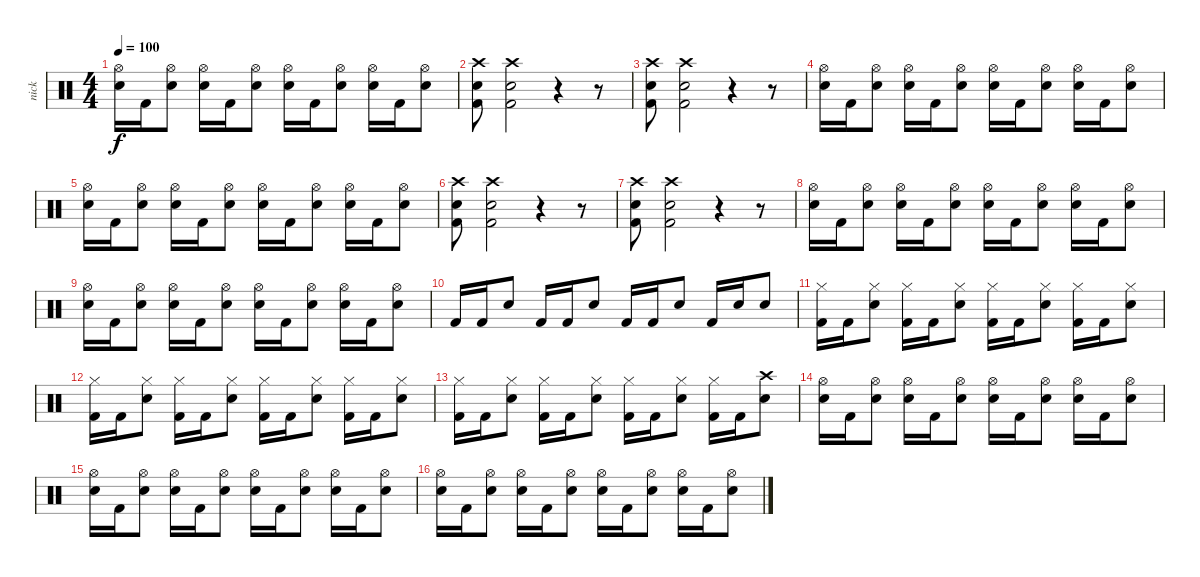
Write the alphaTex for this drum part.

\track ("nick" "nick") {instrument percussion}
\staff {score}
\articulation defaults
\ts (4 4)
\tempo 100
\clef neutral
\ks c
("Snare (hit) 2" "Hi-Hat (open)").16{dy f} "Kick (hit) 2".16 ("Snare (hit) 2" "Hi-Hat (open)").8 ("Snare (hit) 2" "Hi-Hat (open)").16 "Kick (hit) 2".16 ("Snare (hit) 2" "Hi-Hat (open)").8 ("Snare (hit) 2" "Hi-Hat (open)").16 "Kick (hit) 2".16 ("Snare (hit) 2" "Hi-Hat (open)").8 ("Snare (hit) 2" "Hi-Hat (open)").16 "Kick (hit) 2".16 ("Snare (hit) 2" "Hi-Hat (open)").8 |
("Snare (hit) 2" "Kick (hit) 2" "Crash high (hit)").8 ("Snare (hit) 2" "Kick (hit) 2" "Crash high (hit)").2 r.4 r.8 |
("Snare (hit) 2" "Kick (hit) 2" "Crash high (hit)").8 ("Snare (hit) 2" "Kick (hit) 2" "Crash high (hit)").2 r.4 r.8 |
("Snare (hit) 2" "Hi-Hat (open)").16 "Kick (hit) 2".16 ("Snare (hit) 2" "Hi-Hat (open)").8 ("Snare (hit) 2" "Hi-Hat (open)").16 "Kick (hit) 2".16 ("Snare (hit) 2" "Hi-Hat (open)").8 ("Snare (hit) 2" "Hi-Hat (open)").16 "Kick (hit) 2".16 ("Snare (hit) 2" "Hi-Hat (open)").8 ("Snare (hit) 2" "Hi-Hat (open)").16 "Kick (hit) 2".16 ("Snare (hit) 2" "Hi-Hat (open)").8 |
("Snare (hit) 2" "Hi-Hat (open)").16 "Kick (hit) 2".16 ("Snare (hit) 2" "Hi-Hat (open)").8 ("Snare (hit) 2" "Hi-Hat (open)").16 "Kick (hit) 2".16 ("Snare (hit) 2" "Hi-Hat (open)").8 ("Snare (hit) 2" "Hi-Hat (open)").16 "Kick (hit) 2".16 ("Snare (hit) 2" "Hi-Hat (open)").8 ("Snare (hit) 2" "Hi-Hat (open)").16 "Kick (hit) 2".16 ("Snare (hit) 2" "Hi-Hat (open)").8 |
("Snare (hit) 2" "Kick (hit) 2" "Crash high (hit)").8 ("Snare (hit) 2" "Kick (hit) 2" "Crash high (hit)").2 r.4 r.8 |
("Snare (hit) 2" "Kick (hit) 2" "Crash high (hit)").8 ("Snare (hit) 2" "Kick (hit) 2" "Crash high (hit)").2 r.4 r.8 |
("Snare (hit) 2" "Hi-Hat (open)").16 "Kick (hit) 2".16 ("Snare (hit) 2" "Hi-Hat (open)").8 ("Snare (hit) 2" "Hi-Hat (open)").16 "Kick (hit) 2".16 ("Snare (hit) 2" "Hi-Hat (open)").8 ("Snare (hit) 2" "Hi-Hat (open)").16 "Kick (hit) 2".16 ("Snare (hit) 2" "Hi-Hat (open)").8 ("Snare (hit) 2" "Hi-Hat (open)").16 "Kick (hit) 2".16 ("Snare (hit) 2" "Hi-Hat (open)").8 |
("Snare (hit) 2" "Hi-Hat (open)").16 "Kick (hit) 2".16 ("Snare (hit) 2" "Hi-Hat (open)").8 ("Snare (hit) 2" "Hi-Hat (open)").16 "Kick (hit) 2".16 ("Snare (hit) 2" "Hi-Hat (open)").8 ("Snare (hit) 2" "Hi-Hat (open)").16 "Kick (hit) 2".16 ("Snare (hit) 2" "Hi-Hat (open)").8 ("Snare (hit) 2" "Hi-Hat (open)").16 "Kick (hit) 2".16 ("Snare (hit) 2" "Hi-Hat (open)").8 |
"Kick (hit) 2".16 "Kick (hit) 2".16 "Snare (hit) 2".8 "Kick (hit) 2".16 "Kick (hit) 2".16 "Snare (hit) 2".8 "Kick (hit) 2".16 "Kick (hit) 2".16 "Snare (hit) 2".8 "Kick (hit) 2".16 "Snare (hit)".16 "Snare (hit)".8 |
("Kick (hit) 2" "Hi-Hat (closed)").16 "Kick (hit) 2".16 ("Snare (hit) 2" "Hi-Hat (closed)").8 ("Kick (hit) 2" "Hi-Hat (closed)").16 "Kick (hit) 2".16 ("Snare (hit) 2" "Hi-Hat (closed)").8 ("Kick (hit) 2" "Hi-Hat (closed)").16 "Kick (hit) 2".16 ("Snare (hit) 2" "Hi-Hat (closed)").8 ("Kick (hit) 2" "Hi-Hat (closed)").16 "Kick (hit) 2".16 ("Snare (hit) 2" "Hi-Hat (closed)").8 |
("Kick (hit) 2" "Hi-Hat (closed)").16 "Kick (hit) 2".16 ("Snare (hit) 2" "Hi-Hat (closed)").8 ("Kick (hit) 2" "Hi-Hat (closed)").16 "Kick (hit) 2".16 ("Snare (hit) 2" "Hi-Hat (closed)").8 ("Kick (hit) 2" "Hi-Hat (closed)").16 "Kick (hit) 2".16 ("Snare (hit) 2" "Hi-Hat (closed)").8 ("Kick (hit) 2" "Hi-Hat (closed)").16 "Kick (hit) 2".16 ("Snare (hit) 2" "Hi-Hat (closed)").8 |
("Kick (hit) 2" "Hi-Hat (closed)").16 "Kick (hit) 2".16 ("Snare (hit) 2" "Hi-Hat (closed)").8 ("Kick (hit) 2" "Hi-Hat (closed)").16 "Kick (hit) 2".16 ("Snare (hit) 2" "Hi-Hat (closed)").8 ("Kick (hit) 2" "Hi-Hat (closed)").16 "Kick (hit) 2".16 ("Snare (hit) 2" "Hi-Hat (closed)").8 ("Kick (hit) 2" "Hi-Hat (closed)").16 "Kick (hit) 2".16 ("Snare (hit) 2" "Crash high (hit)").8 |
("Snare (hit) 2" "Hi-Hat (open)").16 "Kick (hit) 2".16 ("Snare (hit) 2" "Hi-Hat (open)").8 ("Snare (hit) 2" "Hi-Hat (open)").16 "Kick (hit) 2".16 ("Snare (hit) 2" "Hi-Hat (open)").8 ("Snare (hit) 2" "Hi-Hat (open)").16 "Kick (hit) 2".16 ("Snare (hit) 2" "Hi-Hat (open)").8 ("Snare (hit) 2" "Hi-Hat (open)").16 "Kick (hit) 2".16 ("Snare (hit) 2" "Hi-Hat (open)").8 |
("Snare (hit) 2" "Hi-Hat (open)").16 "Kick (hit) 2".16 ("Snare (hit) 2" "Hi-Hat (open)").8 ("Snare (hit) 2" "Hi-Hat (open)").16 "Kick (hit) 2".16 ("Snare (hit) 2" "Hi-Hat (open)").8 ("Snare (hit) 2" "Hi-Hat (open)").16 "Kick (hit) 2".16 ("Snare (hit) 2" "Hi-Hat (open)").8 ("Snare (hit) 2" "Hi-Hat (open)").16 "Kick (hit) 2".16 ("Snare (hit) 2" "Hi-Hat (open)").8 |
("Snare (hit) 2" "Hi-Hat (open)").16 "Kick (hit) 2".16 ("Snare (hit) 2" "Hi-Hat (open)").8 ("Snare (hit) 2" "Hi-Hat (open)").16 "Kick (hit) 2".16 ("Snare (hit) 2" "Hi-Hat (open)").8 ("Snare (hit) 2" "Hi-Hat (open)").16 "Kick (hit) 2".16 ("Snare (hit) 2" "Hi-Hat (open)").8 ("Snare (hit) 2" "Hi-Hat (open)").16 "Kick (hit) 2".16 ("Snare (hit) 2" "Hi-Hat (open)").8
